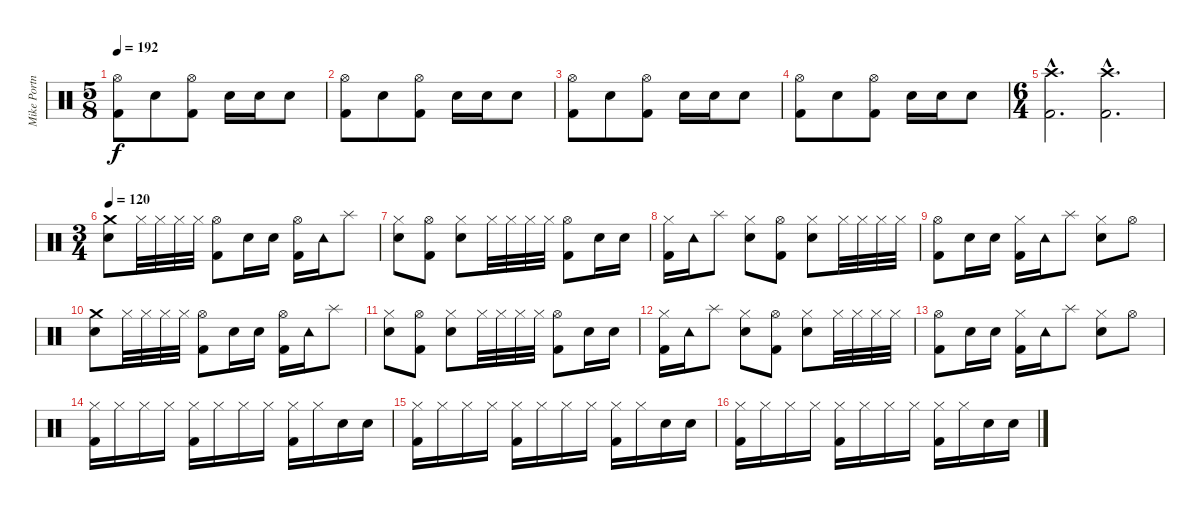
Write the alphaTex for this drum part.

\track ("Mike Portnoy" "Mike Portn") {instrument percussion}
\staff {score}
\articulation defaults
\ts (5 8)
\tempo 192
\clef neutral
\ks c
("Hi-Hat (open)" "Kick (hit) 2").8{dy f} "Snare (hit) 2".8 ("Hi-Hat (open)" "Kick (hit) 2").8 "Snare (hit) 2".16 "Snare (hit) 2".16 "Snare (hit) 2".8 |
("Hi-Hat (open)" "Kick (hit) 2").8 "Snare (hit) 2".8 ("Hi-Hat (open)" "Kick (hit) 2").8 "Snare (hit) 2".16 "Snare (hit) 2".16 "Snare (hit) 2".8 |
("Hi-Hat (open)" "Kick (hit) 2").8 "Snare (hit) 2".8 ("Hi-Hat (open)" "Kick (hit) 2").8 "Snare (hit) 2".16 "Snare (hit) 2".16 "Snare (hit) 2".8 |
("Hi-Hat (open)" "Kick (hit) 2").8 "Snare (hit) 2".8 ("Hi-Hat (open)" "Kick (hit) 2").8 "Snare (hit) 2".16 "Snare (hit) 2".16 "Snare (hit) 2".8 |
\ts (6 4)
("Crash high (hit)"{hac} "Kick (hit) 2"{hac}).2{d} ("Crash high (hit)"{hac} "Kick (hit) 2"{hac}).2{d} |
\ts (3 4)
\tempo 120
("Crash medium (hit)" "Snare (hit) 2").8 "Hi-Hat (closed)".32 "Hi-Hat (closed)".32 "Hi-Hat (closed)".32 "Hi-Hat (closed)".32 ("Hi-Hat (open)" "Kick (hit) 2").8 "Snare (hit) 2".16 "Snare (hit) 2".16 ("Hi-Hat (open)" "Kick (hit) 2").16 "Tambourine (hit)".16 "Splash (hit)".8 |
("Hi-Hat (closed)" "Snare (hit) 2").8 ("Hi-Hat (open)" "Kick (hit) 2").8 ("Hi-Hat (closed)" "Snare (hit) 2").8 "Hi-Hat (closed)".32 "Hi-Hat (closed)".32 "Hi-Hat (closed)".32 "Hi-Hat (closed)".32 ("Hi-Hat (open)" "Kick (hit) 2").8 "Snare (hit) 2".16 "Snare (hit) 2".16 |
("Hi-Hat (closed)" "Kick (hit) 2").16 "Tambourine (hit)".16 "Splash (hit)".8 ("Hi-Hat (closed)" "Snare (hit) 2").8 ("Hi-Hat (open)" "Kick (hit) 2").8 ("Hi-Hat (closed)" "Snare (hit) 2").8 "Hi-Hat (closed)".32 "Hi-Hat (closed)".32 "Hi-Hat (closed)".32 "Hi-Hat (closed)".32 |
("Hi-Hat (open)" "Kick (hit) 2").8 "Snare (hit) 2".16 "Snare (hit) 2".16 ("Hi-Hat (closed)" "Kick (hit) 2").16 "Tambourine (hit)".16 "Splash (hit)".8 ("Hi-Hat (closed)" "Snare (hit) 2").8 "Hi-Hat (open)".8 |
("Crash medium (hit)" "Snare (hit) 2").8 "Hi-Hat (closed)".32 "Hi-Hat (closed)".32 "Hi-Hat (closed)".32 "Hi-Hat (closed)".32 ("Hi-Hat (open)" "Kick (hit) 2").8 "Snare (hit) 2".16 "Snare (hit) 2".16 ("Hi-Hat (open)" "Kick (hit) 2").16 "Tambourine (hit)".16 "Splash (hit)".8 |
("Hi-Hat (closed)" "Snare (hit) 2").8 ("Hi-Hat (open)" "Kick (hit) 2").8 ("Hi-Hat (closed)" "Snare (hit) 2").8 "Hi-Hat (closed)".32 "Hi-Hat (closed)".32 "Hi-Hat (closed)".32 "Hi-Hat (closed)".32 ("Hi-Hat (open)" "Kick (hit) 2").8 "Snare (hit) 2".16 "Snare (hit) 2".16 |
("Hi-Hat (closed)" "Kick (hit) 2").16 "Tambourine (hit)".16 "Splash (hit)".8 ("Hi-Hat (closed)" "Snare (hit) 2").8 ("Hi-Hat (open)" "Kick (hit) 2").8 ("Hi-Hat (closed)" "Snare (hit) 2").8 "Hi-Hat (closed)".32 "Hi-Hat (closed)".32 "Hi-Hat (closed)".32 "Hi-Hat (closed)".32 |
("Hi-Hat (open)" "Kick (hit) 2").8 "Snare (hit) 2".16 "Snare (hit) 2".16 ("Hi-Hat (closed)" "Kick (hit) 2").16 "Tambourine (hit)".16 "Splash (hit)".8 ("Hi-Hat (closed)" "Snare (hit) 2").8 "Hi-Hat (open)".8 |
("Hi-Hat (closed)" "Kick (hit) 2").16 "Hi-Hat (closed)".16 "Hi-Hat (closed)".16 "Hi-Hat (closed)".16 ("Hi-Hat (closed)" "Kick (hit) 2").16 "Hi-Hat (closed)".16 "Hi-Hat (closed)".16 "Hi-Hat (closed)".16 ("Hi-Hat (closed)" "Kick (hit) 2").16 "Hi-Hat (closed)".16 "Snare (hit) 2".16 "Snare (hit) 2".16 |
("Hi-Hat (closed)" "Kick (hit) 2").16 "Hi-Hat (closed)".16 "Hi-Hat (closed)".16 "Hi-Hat (closed)".16 ("Hi-Hat (closed)" "Kick (hit) 2").16 "Hi-Hat (closed)".16 "Hi-Hat (closed)".16 "Hi-Hat (closed)".16 ("Hi-Hat (closed)" "Kick (hit) 2").16 "Hi-Hat (closed)".16 "Snare (hit) 2".16 "Snare (hit) 2".16 |
("Hi-Hat (closed)" "Kick (hit) 2").16 "Hi-Hat (closed)".16 "Hi-Hat (closed)".16 "Hi-Hat (closed)".16 ("Hi-Hat (closed)" "Kick (hit) 2").16 "Hi-Hat (closed)".16 "Hi-Hat (closed)".16 "Hi-Hat (closed)".16 ("Hi-Hat (closed)" "Kick (hit) 2").16 "Hi-Hat (closed)".16 "Snare (hit) 2".16 "Snare (hit) 2".16
